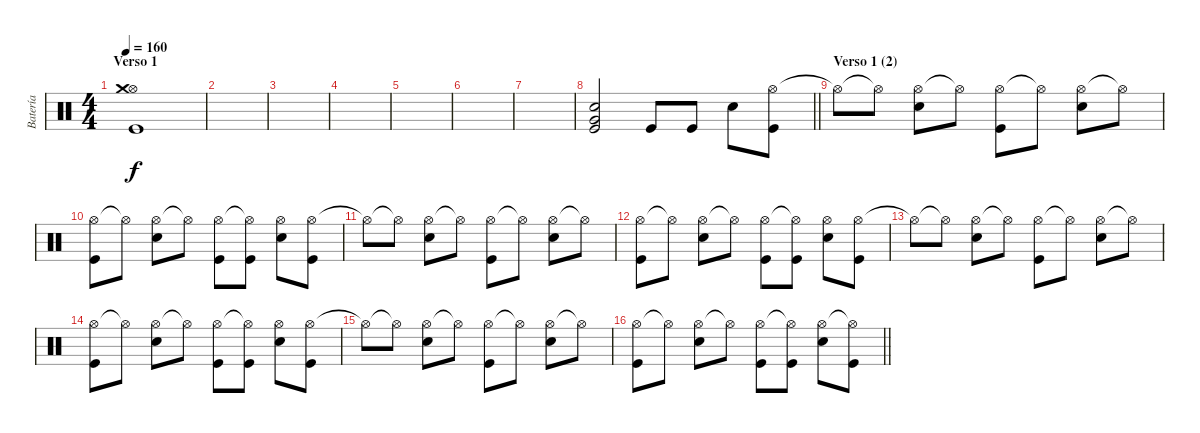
\track ("Batería" "Batería") {instrument percussion}
\staff {score}
\articulation defaults
\ts (4 4)
\section ("" "Verso 1")
\tempo 160
\clef neutral
\ks c
("Hi-Hat (open)" "Kick (hit)" "Crash medium (hit)").1{dy f} |
|
|
|
|
|
|
\barLineRight lightlight
("Very Low Tom (hit)" "Electric Snare (hit)" "Kick (hit)").2 "Kick (hit)".8 "Kick (hit)".8 "Electric Snare (hit)".8 ("Hi-Hat (open)" "Kick (hit)").8 |
\section ("" "Verso 1 (2)")
"Hi-Hat (open)"{t}.8 "Hi-Hat (open)"{t}.8 ("Hi-Hat (open)" "Electric Snare (hit)").8 "Hi-Hat (open)"{t}.8 ("Hi-Hat (open)" "Kick (hit)").8 "Hi-Hat (open)"{t}.8 ("Hi-Hat (open)" "Electric Snare (hit)").8 "Hi-Hat (open)"{t}.8 |
("Hi-Hat (open)" "Kick (hit)").8 "Hi-Hat (open)"{t}.8 ("Hi-Hat (open)" "Electric Snare (hit)").8 "Hi-Hat (open)"{t}.8 ("Hi-Hat (open)" "Kick (hit)").8 ("Hi-Hat (open)"{t} "Kick (hit)").8 ("Hi-Hat (open)" "Electric Snare (hit)").8 ("Hi-Hat (open)" "Kick (hit)").8 |
"Hi-Hat (open)"{t}.8 "Hi-Hat (open)"{t}.8 ("Hi-Hat (open)" "Electric Snare (hit)").8 "Hi-Hat (open)"{t}.8 ("Hi-Hat (open)" "Kick (hit)").8 "Hi-Hat (open)"{t}.8 ("Hi-Hat (open)" "Electric Snare (hit)").8 "Hi-Hat (open)"{t}.8 |
("Hi-Hat (open)" "Kick (hit)").8 "Hi-Hat (open)"{t}.8 ("Hi-Hat (open)" "Electric Snare (hit)").8 "Hi-Hat (open)"{t}.8 ("Hi-Hat (open)" "Kick (hit)").8 ("Hi-Hat (open)"{t} "Kick (hit)").8 ("Hi-Hat (open)" "Electric Snare (hit)").8 ("Hi-Hat (open)" "Kick (hit)").8 |
"Hi-Hat (open)"{t}.8 "Hi-Hat (open)"{t}.8 ("Hi-Hat (open)" "Electric Snare (hit)").8 "Hi-Hat (open)"{t}.8 ("Hi-Hat (open)" "Kick (hit)").8 "Hi-Hat (open)"{t}.8 ("Hi-Hat (open)" "Electric Snare (hit)").8 "Hi-Hat (open)"{t}.8 |
("Hi-Hat (open)" "Kick (hit)").8 "Hi-Hat (open)"{t}.8 ("Hi-Hat (open)" "Electric Snare (hit)").8 "Hi-Hat (open)"{t}.8 ("Hi-Hat (open)" "Kick (hit)").8 ("Hi-Hat (open)"{t} "Kick (hit)").8 ("Hi-Hat (open)" "Electric Snare (hit)").8 ("Hi-Hat (open)" "Kick (hit)").8 |
"Hi-Hat (open)"{t}.8 "Hi-Hat (open)"{t}.8 ("Hi-Hat (open)" "Electric Snare (hit)").8 "Hi-Hat (open)"{t}.8 ("Hi-Hat (open)" "Kick (hit)").8 "Hi-Hat (open)"{t}.8 ("Hi-Hat (open)" "Electric Snare (hit)").8 "Hi-Hat (open)"{t}.8 |
\barLineRight lightlight
("Hi-Hat (open)" "Kick (hit)").8 "Hi-Hat (open)"{t}.8 ("Hi-Hat (open)" "Electric Snare (hit)").8 "Hi-Hat (open)"{t}.8 ("Hi-Hat (open)" "Kick (hit)").8 ("Hi-Hat (open)"{t} "Kick (hit)").8 ("Hi-Hat (open)" "Electric Snare (hit)").8 ("Hi-Hat (open)"{t} "Kick (hit)").8
